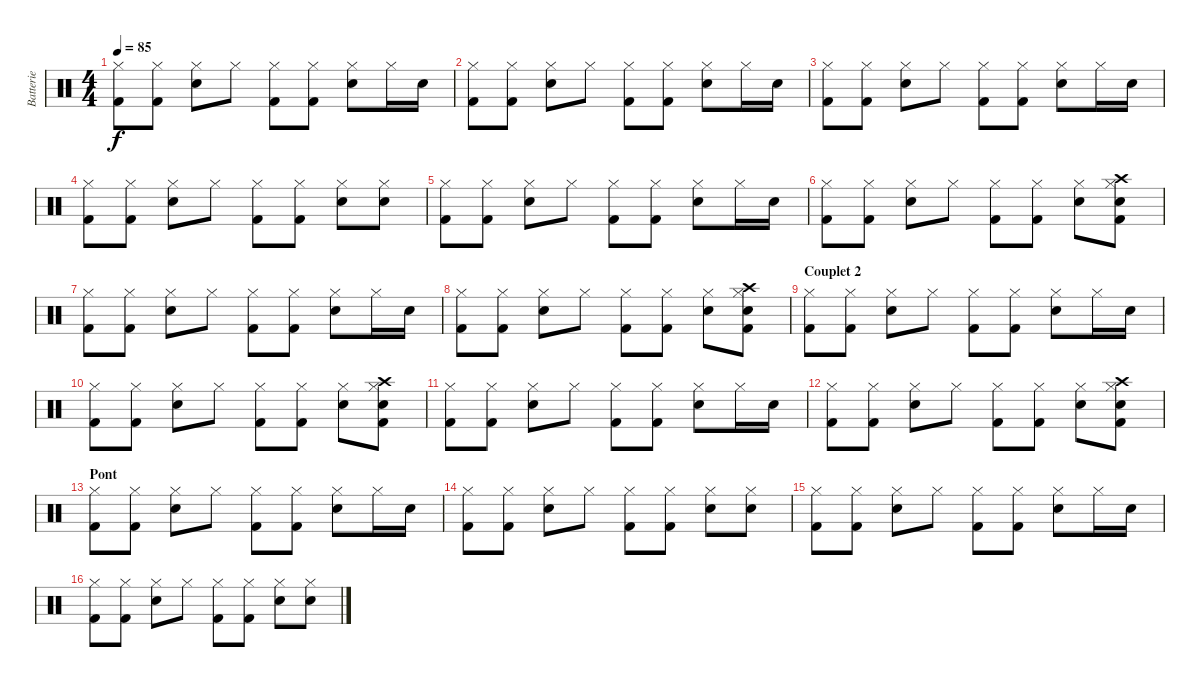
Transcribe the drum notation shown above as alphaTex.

\track ("Batterie" "Batterie") {instrument percussion}
\staff {score}
\articulation defaults
\ts (4 4)
\tempo 85
\clef neutral
\ks c
("Hi-Hat (closed)" "Kick (hit) 2").8{dy f} ("Hi-Hat (closed)" "Kick (hit) 2").8 ("Hi-Hat (closed)" "Snare (hit) 2").8 "Hi-Hat (closed)".8 ("Hi-Hat (closed)" "Kick (hit) 2").8 ("Hi-Hat (closed)" "Kick (hit) 2").8 ("Hi-Hat (closed)" "Snare (hit) 2").8 "Hi-Hat (closed)".16 "Snare (hit) 2".16 |
("Hi-Hat (closed)" "Kick (hit) 2").8 ("Hi-Hat (closed)" "Kick (hit) 2").8 ("Hi-Hat (closed)" "Snare (hit) 2").8 "Hi-Hat (closed)".8 ("Hi-Hat (closed)" "Kick (hit) 2").8 ("Hi-Hat (closed)" "Kick (hit) 2").8 ("Hi-Hat (closed)" "Snare (hit) 2").8 "Hi-Hat (closed)".16 "Snare (hit) 2".16 |
("Hi-Hat (closed)" "Kick (hit) 2").8 ("Hi-Hat (closed)" "Kick (hit) 2").8 ("Hi-Hat (closed)" "Snare (hit) 2").8 "Hi-Hat (closed)".8 ("Hi-Hat (closed)" "Kick (hit) 2").8 ("Hi-Hat (closed)" "Kick (hit) 2").8 ("Hi-Hat (closed)" "Snare (hit) 2").8 "Hi-Hat (closed)".16 "Snare (hit) 2".16 |
("Hi-Hat (closed)" "Kick (hit) 2").8 ("Hi-Hat (closed)" "Kick (hit) 2").8 ("Hi-Hat (closed)" "Snare (hit) 2").8 "Hi-Hat (closed)".8 ("Hi-Hat (closed)" "Kick (hit) 2").8 ("Hi-Hat (closed)" "Kick (hit) 2").8 ("Hi-Hat (closed)" "Snare (hit) 2").8 ("Hi-Hat (closed)" "Snare (hit) 2").8 |
("Hi-Hat (closed)" "Kick (hit) 2").8 ("Hi-Hat (closed)" "Kick (hit) 2").8 ("Hi-Hat (closed)" "Snare (hit) 2").8 "Hi-Hat (closed)".8 ("Hi-Hat (closed)" "Kick (hit) 2").8 ("Hi-Hat (closed)" "Kick (hit) 2").8 ("Hi-Hat (closed)" "Snare (hit) 2").8 "Hi-Hat (closed)".16 "Snare (hit) 2".16 |
("Hi-Hat (closed)" "Kick (hit) 2").8 ("Hi-Hat (closed)" "Kick (hit) 2").8 ("Hi-Hat (closed)" "Snare (hit) 2").8 "Hi-Hat (closed)".8 ("Hi-Hat (closed)" "Kick (hit) 2").8 ("Hi-Hat (closed)" "Kick (hit) 2").8 ("Hi-Hat (closed)" "Snare (hit) 2").8 ("Crash high (hit)" "Hi-Hat (closed)" "Snare (hit) 2" "Kick (hit) 2").8 |
("Hi-Hat (closed)" "Kick (hit) 2").8 ("Hi-Hat (closed)" "Kick (hit) 2").8 ("Hi-Hat (closed)" "Snare (hit) 2").8 "Hi-Hat (closed)".8 ("Hi-Hat (closed)" "Kick (hit) 2").8 ("Hi-Hat (closed)" "Kick (hit) 2").8 ("Hi-Hat (closed)" "Snare (hit) 2").8 "Hi-Hat (closed)".16 "Snare (hit) 2".16 |
("Hi-Hat (closed)" "Kick (hit) 2").8 ("Hi-Hat (closed)" "Kick (hit) 2").8 ("Hi-Hat (closed)" "Snare (hit) 2").8 "Hi-Hat (closed)".8 ("Hi-Hat (closed)" "Kick (hit) 2").8 ("Hi-Hat (closed)" "Kick (hit) 2").8 ("Hi-Hat (closed)" "Snare (hit) 2").8 ("Crash high (hit)" "Hi-Hat (closed)" "Snare (hit) 2" "Kick (hit) 2").8 |
\section ("" "Couplet 2")
("Hi-Hat (closed)" "Kick (hit) 2").8 ("Hi-Hat (closed)" "Kick (hit) 2").8 ("Hi-Hat (closed)" "Snare (hit) 2").8 "Hi-Hat (closed)".8 ("Hi-Hat (closed)" "Kick (hit) 2").8 ("Hi-Hat (closed)" "Kick (hit) 2").8 ("Hi-Hat (closed)" "Snare (hit) 2").8 "Hi-Hat (closed)".16 "Snare (hit) 2".16 |
("Hi-Hat (closed)" "Kick (hit) 2").8 ("Hi-Hat (closed)" "Kick (hit) 2").8 ("Hi-Hat (closed)" "Snare (hit) 2").8 "Hi-Hat (closed)".8 ("Hi-Hat (closed)" "Kick (hit) 2").8 ("Hi-Hat (closed)" "Kick (hit) 2").8 ("Hi-Hat (closed)" "Snare (hit) 2").8 ("Crash high (hit)" "Hi-Hat (closed)" "Snare (hit) 2" "Kick (hit) 2").8 |
("Hi-Hat (closed)" "Kick (hit) 2").8 ("Hi-Hat (closed)" "Kick (hit) 2").8 ("Hi-Hat (closed)" "Snare (hit) 2").8 "Hi-Hat (closed)".8 ("Hi-Hat (closed)" "Kick (hit) 2").8 ("Hi-Hat (closed)" "Kick (hit) 2").8 ("Hi-Hat (closed)" "Snare (hit) 2").8 "Hi-Hat (closed)".16 "Snare (hit) 2".16 |
("Hi-Hat (closed)" "Kick (hit) 2").8 ("Hi-Hat (closed)" "Kick (hit) 2").8 ("Hi-Hat (closed)" "Snare (hit) 2").8 "Hi-Hat (closed)".8 ("Hi-Hat (closed)" "Kick (hit) 2").8 ("Hi-Hat (closed)" "Kick (hit) 2").8 ("Hi-Hat (closed)" "Snare (hit) 2").8 ("Crash high (hit)" "Hi-Hat (closed)" "Snare (hit) 2" "Kick (hit) 2").8 |
\section ("" "Pont")
("Hi-Hat (closed)" "Kick (hit) 2").8 ("Hi-Hat (closed)" "Kick (hit) 2").8 ("Hi-Hat (closed)" "Snare (hit) 2").8 "Hi-Hat (closed)".8 ("Hi-Hat (closed)" "Kick (hit) 2").8 ("Hi-Hat (closed)" "Kick (hit) 2").8 ("Hi-Hat (closed)" "Snare (hit) 2").8 "Hi-Hat (closed)".16 "Snare (hit) 2".16 |
("Hi-Hat (closed)" "Kick (hit) 2").8 ("Hi-Hat (closed)" "Kick (hit) 2").8 ("Hi-Hat (closed)" "Snare (hit) 2").8 "Hi-Hat (closed)".8 ("Hi-Hat (closed)" "Kick (hit) 2").8 ("Hi-Hat (closed)" "Kick (hit) 2").8 ("Hi-Hat (closed)" "Snare (hit) 2").8 ("Hi-Hat (closed)" "Snare (hit) 2").8 |
("Hi-Hat (closed)" "Kick (hit) 2").8 ("Hi-Hat (closed)" "Kick (hit) 2").8 ("Hi-Hat (closed)" "Snare (hit) 2").8 "Hi-Hat (closed)".8 ("Hi-Hat (closed)" "Kick (hit) 2").8 ("Hi-Hat (closed)" "Kick (hit) 2").8 ("Hi-Hat (closed)" "Snare (hit) 2").8 "Hi-Hat (closed)".16 "Snare (hit) 2".16 |
("Hi-Hat (closed)" "Kick (hit) 2").8 ("Hi-Hat (closed)" "Kick (hit) 2").8 ("Hi-Hat (closed)" "Snare (hit) 2").8 "Hi-Hat (closed)".8 ("Hi-Hat (closed)" "Kick (hit) 2").8 ("Hi-Hat (closed)" "Kick (hit) 2").8 ("Hi-Hat (closed)" "Snare (hit) 2").8 ("Hi-Hat (closed)" "Snare (hit) 2").8
